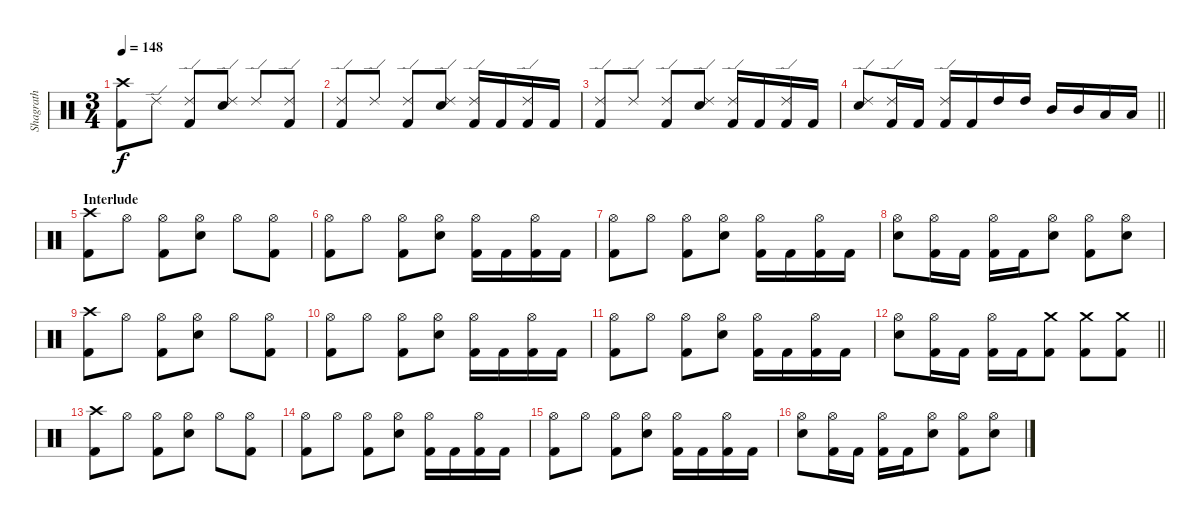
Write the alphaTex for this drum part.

\track ("Shagrath" "Shagrath") {instrument percussion}
\staff {score}
\articulation defaults
\ts (3 4)
\tempo 148
\clef neutral
\ks c
("Crash high (hit)" "Kick (hit) 2").8{dy f} "Ride (edge) 2".8 ("Ride (edge) 2" "Kick (hit) 2").8 ("Ride (edge) 2" "Electric Snare (hit)").8 "Ride (edge) 2".8 ("Ride (edge) 2" "Kick (hit) 2").8 |
("Ride (edge) 2" "Kick (hit) 2").8 "Ride (edge) 2".8 ("Ride (edge) 2" "Kick (hit) 2").8 ("Ride (edge) 2" "Electric Snare (hit)").8 ("Ride (edge) 2" "Kick (hit) 2").16 "Kick (hit) 2".16 ("Ride (edge) 2" "Kick (hit) 2").16 "Kick (hit) 2".16 |
("Ride (edge) 2" "Kick (hit) 2").8 "Ride (edge) 2".8 ("Ride (edge) 2" "Kick (hit) 2").8 ("Ride (edge) 2" "Electric Snare (hit)").8 ("Ride (edge) 2" "Kick (hit) 2").16 "Kick (hit) 2".16 ("Ride (edge) 2" "Kick (hit) 2").16 "Kick (hit) 2".16 |
\barLineRight lightlight
("Ride (edge) 2" "Electric Snare (hit)").8 ("Ride (edge) 2" "Kick (hit) 2").16 "Kick (hit) 2".16 ("Ride (edge) 2" "Kick (hit) 2").16 "Kick (hit) 2".16 "High Tom (hit)".16 "High Tom (hit)".16 "Mid Tom (hit)".16 "Mid Tom (hit)".16 "Low Tom (hit)".16 "Low Tom (hit)".16 |
\section ("" "Interlude")
("Crash high (hit)" "Kick (hit) 2").8 "Hi-Hat (open)".8 ("Hi-Hat (open)" "Kick (hit) 2").8 ("Hi-Hat (open)" "Electric Snare (hit)").8 "Hi-Hat (open)".8 ("Hi-Hat (open)" "Kick (hit) 2").8 |
("Hi-Hat (open)" "Kick (hit) 2").8 "Hi-Hat (open)".8 ("Hi-Hat (open)" "Kick (hit) 2").8 ("Hi-Hat (open)" "Electric Snare (hit)").8 ("Hi-Hat (open)" "Kick (hit) 2").16 "Kick (hit) 2".16 ("Hi-Hat (open)" "Kick (hit) 2").16 "Kick (hit) 2".16 |
("Hi-Hat (open)" "Kick (hit) 2").8 "Hi-Hat (open)".8 ("Hi-Hat (open)" "Kick (hit) 2").8 ("Hi-Hat (open)" "Electric Snare (hit)").8 ("Hi-Hat (open)" "Kick (hit) 2").16 "Kick (hit) 2".16 ("Hi-Hat (open)" "Kick (hit) 2").16 "Kick (hit) 2".16 |
("Hi-Hat (open)" "Electric Snare (hit)").8 ("Hi-Hat (open)" "Kick (hit) 2").16 "Kick (hit) 2".16 ("Hi-Hat (open)" "Kick (hit) 2").16 "Kick (hit) 2".16 ("Hi-Hat (open)" "Electric Snare (hit)").8 ("Hi-Hat (open)" "Kick (hit) 2").8 ("Hi-Hat (open)" "Electric Snare (hit)").8 |
("Crash high (hit)" "Kick (hit) 2").8 "Hi-Hat (open)".8 ("Hi-Hat (open)" "Kick (hit) 2").8 ("Hi-Hat (open)" "Electric Snare (hit)").8 "Hi-Hat (open)".8 ("Hi-Hat (open)" "Kick (hit) 2").8 |
("Hi-Hat (open)" "Kick (hit) 2").8 "Hi-Hat (open)".8 ("Hi-Hat (open)" "Kick (hit) 2").8 ("Hi-Hat (open)" "Electric Snare (hit)").8 ("Hi-Hat (open)" "Kick (hit) 2").16 "Kick (hit) 2".16 ("Hi-Hat (open)" "Kick (hit) 2").16 "Kick (hit) 2".16 |
("Hi-Hat (open)" "Kick (hit) 2").8 "Hi-Hat (open)".8 ("Hi-Hat (open)" "Kick (hit) 2").8 ("Hi-Hat (open)" "Electric Snare (hit)").8 ("Hi-Hat (open)" "Kick (hit) 2").16 "Kick (hit) 2".16 ("Hi-Hat (open)" "Kick (hit) 2").16 "Kick (hit) 2".16 |
\barLineRight lightlight
("Hi-Hat (open)" "Electric Snare (hit)").8 ("Hi-Hat (open)" "Kick (hit) 2").16 "Kick (hit) 2".16 ("Hi-Hat (open)" "Kick (hit) 2").16 "Kick (hit) 2".16 ("Crash medium (hit)" "Kick (hit) 2").8 ("Crash medium (hit)" "Kick (hit) 2").8 ("Crash medium (hit)" "Kick (hit) 2").8 |
("Crash high (hit)" "Kick (hit) 2").8 "Hi-Hat (open)".8 ("Hi-Hat (open)" "Kick (hit) 2").8 ("Hi-Hat (open)" "Electric Snare (hit)").8 "Hi-Hat (open)".8 ("Hi-Hat (open)" "Kick (hit) 2").8 |
("Hi-Hat (open)" "Kick (hit) 2").8 "Hi-Hat (open)".8 ("Hi-Hat (open)" "Kick (hit) 2").8 ("Hi-Hat (open)" "Electric Snare (hit)").8 ("Hi-Hat (open)" "Kick (hit) 2").16 "Kick (hit) 2".16 ("Hi-Hat (open)" "Kick (hit) 2").16 "Kick (hit) 2".16 |
("Hi-Hat (open)" "Kick (hit) 2").8 "Hi-Hat (open)".8 ("Hi-Hat (open)" "Kick (hit) 2").8 ("Hi-Hat (open)" "Electric Snare (hit)").8 ("Hi-Hat (open)" "Kick (hit) 2").16 "Kick (hit) 2".16 ("Hi-Hat (open)" "Kick (hit) 2").16 "Kick (hit) 2".16 |
("Hi-Hat (open)" "Electric Snare (hit)").8 ("Hi-Hat (open)" "Kick (hit) 2").16 "Kick (hit) 2".16 ("Hi-Hat (open)" "Kick (hit) 2").16 "Kick (hit) 2".16 ("Hi-Hat (open)" "Electric Snare (hit)").8 ("Hi-Hat (open)" "Kick (hit) 2").8 ("Hi-Hat (open)" "Electric Snare (hit)").8
